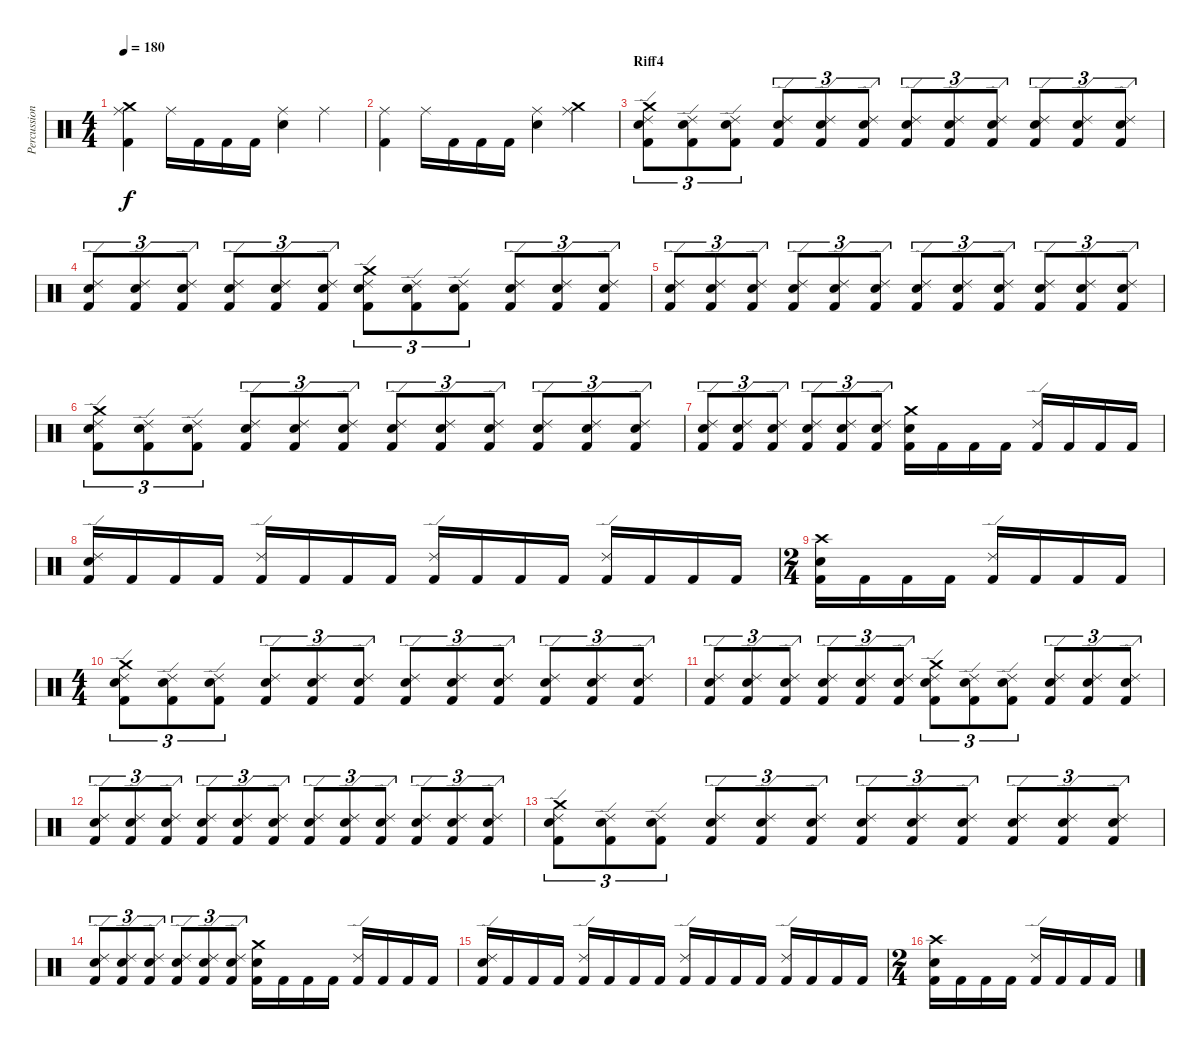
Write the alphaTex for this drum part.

\track ("Percussioni" "Percussion") {instrument percussion}
\staff {score}
\articulation defaults
\ts (4 4)
\tempo 180
\clef neutral
\ks c
("Crash medium (hit)" "Ride (middle)" "Kick (hit) 2").4{dy f} "Ride (middle)".16 "Kick (hit) 2".16 "Kick (hit) 2".16 "Kick (hit) 2".16 ("Ride (middle)" "Electric Snare (hit)").4 "Ride (middle)".4 |
("Ride (middle)" "Kick (hit) 2").4 "Ride (middle)".16 "Kick (hit) 2".16 "Kick (hit) 2".16 "Kick (hit) 2".16 ("Ride (middle)" "Electric Snare (hit)").4 ("Crash medium (hit)" "Ride (middle)").4 |
\section ("" "Riff4")
("Crash medium (hit)" "Ride (edge) 2" "Snare (hit) 2" "Kick (hit) 2").8{tu (3 2)} ("Ride (edge) 2" "Snare (hit) 2" "Kick (hit) 2").8{tu (3 2)} ("Ride (edge) 2" "Snare (hit) 2" "Kick (hit) 2").8{tu (3 2)} ("Ride (edge) 2" "Snare (hit) 2" "Kick (hit) 2").8{tu (3 2)} ("Ride (edge) 2" "Snare (hit) 2" "Kick (hit) 2").8{tu (3 2)} ("Ride (edge) 2" "Snare (hit) 2" "Kick (hit) 2").8{tu (3 2)} ("Ride (edge) 2" "Snare (hit) 2" "Kick (hit) 2").8{tu (3 2)} ("Ride (edge) 2" "Snare (hit) 2" "Kick (hit) 2").8{tu (3 2)} ("Ride (edge) 2" "Snare (hit) 2" "Kick (hit) 2").8{tu (3 2)} ("Ride (edge) 2" "Snare (hit) 2" "Kick (hit) 2").8{tu (3 2)} ("Ride (edge) 2" "Snare (hit) 2" "Kick (hit) 2").8{tu (3 2)} ("Ride (edge) 2" "Snare (hit) 2" "Kick (hit) 2").8{tu (3 2)} |
("Ride (edge) 2" "Snare (hit) 2" "Kick (hit) 2").8{tu (3 2)} ("Ride (edge) 2" "Snare (hit) 2" "Kick (hit) 2").8{tu (3 2)} ("Ride (edge) 2" "Snare (hit) 2" "Kick (hit) 2").8{tu (3 2)} ("Ride (edge) 2" "Snare (hit) 2" "Kick (hit) 2").8{tu (3 2)} ("Ride (edge) 2" "Snare (hit) 2" "Kick (hit) 2").8{tu (3 2)} ("Ride (edge) 2" "Snare (hit) 2" "Kick (hit) 2").8{tu (3 2)} ("Crash medium (hit)" "Ride (edge) 2" "Snare (hit) 2" "Kick (hit) 2").8{tu (3 2)} ("Ride (edge) 2" "Snare (hit) 2" "Kick (hit) 2").8{tu (3 2)} ("Ride (edge) 2" "Snare (hit) 2" "Kick (hit) 2").8{tu (3 2)} ("Ride (edge) 2" "Snare (hit) 2" "Kick (hit) 2").8{tu (3 2)} ("Ride (edge) 2" "Snare (hit) 2" "Kick (hit) 2").8{tu (3 2)} ("Ride (edge) 2" "Snare (hit) 2" "Kick (hit) 2").8{tu (3 2)} |
("Ride (edge) 2" "Snare (hit) 2" "Kick (hit) 2").8{tu (3 2)} ("Ride (edge) 2" "Snare (hit) 2" "Kick (hit) 2").8{tu (3 2)} ("Ride (edge) 2" "Snare (hit) 2" "Kick (hit) 2").8{tu (3 2)} ("Ride (edge) 2" "Snare (hit) 2" "Kick (hit) 2").8{tu (3 2)} ("Ride (edge) 2" "Snare (hit) 2" "Kick (hit) 2").8{tu (3 2)} ("Ride (edge) 2" "Snare (hit) 2" "Kick (hit) 2").8{tu (3 2)} ("Ride (edge) 2" "Snare (hit) 2" "Kick (hit) 2").8{tu (3 2)} ("Ride (edge) 2" "Snare (hit) 2" "Kick (hit) 2").8{tu (3 2)} ("Ride (edge) 2" "Snare (hit) 2" "Kick (hit) 2").8{tu (3 2)} ("Ride (edge) 2" "Snare (hit) 2" "Kick (hit) 2").8{tu (3 2)} ("Ride (edge) 2" "Snare (hit) 2" "Kick (hit) 2").8{tu (3 2)} ("Ride (edge) 2" "Snare (hit) 2" "Kick (hit) 2").8{tu (3 2)} |
("Crash medium (hit)" "Ride (edge) 2" "Snare (hit) 2" "Kick (hit) 2").8{tu (3 2)} ("Ride (edge) 2" "Snare (hit) 2" "Kick (hit) 2").8{tu (3 2)} ("Ride (edge) 2" "Snare (hit) 2" "Kick (hit) 2").8{tu (3 2)} ("Ride (edge) 2" "Snare (hit) 2" "Kick (hit) 2").8{tu (3 2)} ("Ride (edge) 2" "Snare (hit) 2" "Kick (hit) 2").8{tu (3 2)} ("Ride (edge) 2" "Snare (hit) 2" "Kick (hit) 2").8{tu (3 2)} ("Ride (edge) 2" "Snare (hit) 2" "Kick (hit) 2").8{tu (3 2)} ("Ride (edge) 2" "Snare (hit) 2" "Kick (hit) 2").8{tu (3 2)} ("Ride (edge) 2" "Snare (hit) 2" "Kick (hit) 2").8{tu (3 2)} ("Ride (edge) 2" "Snare (hit) 2" "Kick (hit) 2").8{tu (3 2)} ("Ride (edge) 2" "Snare (hit) 2" "Kick (hit) 2").8{tu (3 2)} ("Ride (edge) 2" "Snare (hit) 2" "Kick (hit) 2").8{tu (3 2)} |
("Ride (edge) 2" "Snare (hit) 2" "Kick (hit) 2").8{tu (3 2)} ("Ride (edge) 2" "Snare (hit) 2" "Kick (hit) 2").8{tu (3 2)} ("Ride (edge) 2" "Snare (hit) 2" "Kick (hit) 2").8{tu (3 2)} ("Ride (edge) 2" "Snare (hit) 2" "Kick (hit) 2").8{tu (3 2)} ("Ride (edge) 2" "Snare (hit) 2" "Kick (hit) 2").8{tu (3 2)} ("Ride (edge) 2" "Snare (hit) 2" "Kick (hit) 2").8{tu (3 2)} ("Crash medium (hit)" "Snare (hit) 2" "Kick (hit) 2").16 "Kick (hit) 2".16 "Kick (hit) 2".16 "Kick (hit) 2".16 ("Ride (edge) 2" "Kick (hit) 2").16 "Kick (hit) 2".16 "Kick (hit) 2".16 "Kick (hit) 2".16 |
("Ride (edge) 2" "Snare (hit) 2" "Kick (hit) 2").16 "Kick (hit) 2".16 "Kick (hit) 2".16 "Kick (hit) 2".16 ("Ride (edge) 2" "Kick (hit) 2").16 "Kick (hit) 2".16 "Kick (hit) 2".16 "Kick (hit) 2".16 ("Ride (edge) 2" "Kick (hit) 2").16 "Kick (hit) 2".16 "Kick (hit) 2".16 "Kick (hit) 2".16 ("Ride (edge) 2" "Kick (hit) 2").16 "Kick (hit) 2".16 "Kick (hit) 2".16 "Kick (hit) 2".16 |
\ts (2 4)
("Crash high (hit)" "Snare (hit) 2" "Kick (hit) 2").16 "Kick (hit) 2".16 "Kick (hit) 2".16 "Kick (hit) 2".16 ("Ride (edge) 2" "Kick (hit) 2").16 "Kick (hit) 2".16 "Kick (hit) 2".16 "Kick (hit) 2".16 |
\ts (4 4)
("Crash medium (hit)" "Ride (edge) 2" "Snare (hit) 2" "Kick (hit) 2").8{tu (3 2)} ("Ride (edge) 2" "Snare (hit) 2" "Kick (hit) 2").8{tu (3 2)} ("Ride (edge) 2" "Snare (hit) 2" "Kick (hit) 2").8{tu (3 2)} ("Ride (edge) 2" "Snare (hit) 2" "Kick (hit) 2").8{tu (3 2)} ("Ride (edge) 2" "Snare (hit) 2" "Kick (hit) 2").8{tu (3 2)} ("Ride (edge) 2" "Snare (hit) 2" "Kick (hit) 2").8{tu (3 2)} ("Ride (edge) 2" "Snare (hit) 2" "Kick (hit) 2").8{tu (3 2)} ("Ride (edge) 2" "Snare (hit) 2" "Kick (hit) 2").8{tu (3 2)} ("Ride (edge) 2" "Snare (hit) 2" "Kick (hit) 2").8{tu (3 2)} ("Ride (edge) 2" "Snare (hit) 2" "Kick (hit) 2").8{tu (3 2)} ("Ride (edge) 2" "Snare (hit) 2" "Kick (hit) 2").8{tu (3 2)} ("Ride (edge) 2" "Snare (hit) 2" "Kick (hit) 2").8{tu (3 2)} |
("Ride (edge) 2" "Snare (hit) 2" "Kick (hit) 2").8{tu (3 2)} ("Ride (edge) 2" "Snare (hit) 2" "Kick (hit) 2").8{tu (3 2)} ("Ride (edge) 2" "Snare (hit) 2" "Kick (hit) 2").8{tu (3 2)} ("Ride (edge) 2" "Snare (hit) 2" "Kick (hit) 2").8{tu (3 2)} ("Ride (edge) 2" "Snare (hit) 2" "Kick (hit) 2").8{tu (3 2)} ("Ride (edge) 2" "Snare (hit) 2" "Kick (hit) 2").8{tu (3 2)} ("Crash medium (hit)" "Ride (edge) 2" "Snare (hit) 2" "Kick (hit) 2").8{tu (3 2)} ("Ride (edge) 2" "Snare (hit) 2" "Kick (hit) 2").8{tu (3 2)} ("Ride (edge) 2" "Snare (hit) 2" "Kick (hit) 2").8{tu (3 2)} ("Ride (edge) 2" "Snare (hit) 2" "Kick (hit) 2").8{tu (3 2)} ("Ride (edge) 2" "Snare (hit) 2" "Kick (hit) 2").8{tu (3 2)} ("Ride (edge) 2" "Snare (hit) 2" "Kick (hit) 2").8{tu (3 2)} |
("Ride (edge) 2" "Snare (hit) 2" "Kick (hit) 2").8{tu (3 2)} ("Ride (edge) 2" "Snare (hit) 2" "Kick (hit) 2").8{tu (3 2)} ("Ride (edge) 2" "Snare (hit) 2" "Kick (hit) 2").8{tu (3 2)} ("Ride (edge) 2" "Snare (hit) 2" "Kick (hit) 2").8{tu (3 2)} ("Ride (edge) 2" "Snare (hit) 2" "Kick (hit) 2").8{tu (3 2)} ("Ride (edge) 2" "Snare (hit) 2" "Kick (hit) 2").8{tu (3 2)} ("Ride (edge) 2" "Snare (hit) 2" "Kick (hit) 2").8{tu (3 2)} ("Ride (edge) 2" "Snare (hit) 2" "Kick (hit) 2").8{tu (3 2)} ("Ride (edge) 2" "Snare (hit) 2" "Kick (hit) 2").8{tu (3 2)} ("Ride (edge) 2" "Snare (hit) 2" "Kick (hit) 2").8{tu (3 2)} ("Ride (edge) 2" "Snare (hit) 2" "Kick (hit) 2").8{tu (3 2)} ("Ride (edge) 2" "Snare (hit) 2" "Kick (hit) 2").8{tu (3 2)} |
("Crash medium (hit)" "Ride (edge) 2" "Snare (hit) 2" "Kick (hit) 2").8{tu (3 2)} ("Ride (edge) 2" "Snare (hit) 2" "Kick (hit) 2").8{tu (3 2)} ("Ride (edge) 2" "Snare (hit) 2" "Kick (hit) 2").8{tu (3 2)} ("Ride (edge) 2" "Snare (hit) 2" "Kick (hit) 2").8{tu (3 2)} ("Ride (edge) 2" "Snare (hit) 2" "Kick (hit) 2").8{tu (3 2)} ("Ride (edge) 2" "Snare (hit) 2" "Kick (hit) 2").8{tu (3 2)} ("Ride (edge) 2" "Snare (hit) 2" "Kick (hit) 2").8{tu (3 2)} ("Ride (edge) 2" "Snare (hit) 2" "Kick (hit) 2").8{tu (3 2)} ("Ride (edge) 2" "Snare (hit) 2" "Kick (hit) 2").8{tu (3 2)} ("Ride (edge) 2" "Snare (hit) 2" "Kick (hit) 2").8{tu (3 2)} ("Ride (edge) 2" "Snare (hit) 2" "Kick (hit) 2").8{tu (3 2)} ("Ride (edge) 2" "Snare (hit) 2" "Kick (hit) 2").8{tu (3 2)} |
("Ride (edge) 2" "Snare (hit) 2" "Kick (hit) 2").8{tu (3 2)} ("Ride (edge) 2" "Snare (hit) 2" "Kick (hit) 2").8{tu (3 2)} ("Ride (edge) 2" "Snare (hit) 2" "Kick (hit) 2").8{tu (3 2)} ("Ride (edge) 2" "Snare (hit) 2" "Kick (hit) 2").8{tu (3 2)} ("Ride (edge) 2" "Snare (hit) 2" "Kick (hit) 2").8{tu (3 2)} ("Ride (edge) 2" "Snare (hit) 2" "Kick (hit) 2").8{tu (3 2)} ("Crash medium (hit)" "Snare (hit) 2" "Kick (hit) 2").16 "Kick (hit) 2".16 "Kick (hit) 2".16 "Kick (hit) 2".16 ("Ride (edge) 2" "Kick (hit) 2").16 "Kick (hit) 2".16 "Kick (hit) 2".16 "Kick (hit) 2".16 |
("Ride (edge) 2" "Snare (hit) 2" "Kick (hit) 2").16 "Kick (hit) 2".16 "Kick (hit) 2".16 "Kick (hit) 2".16 ("Ride (edge) 2" "Kick (hit) 2").16 "Kick (hit) 2".16 "Kick (hit) 2".16 "Kick (hit) 2".16 ("Ride (edge) 2" "Kick (hit) 2").16 "Kick (hit) 2".16 "Kick (hit) 2".16 "Kick (hit) 2".16 ("Ride (edge) 2" "Kick (hit) 2").16 "Kick (hit) 2".16 "Kick (hit) 2".16 "Kick (hit) 2".16 |
\ts (2 4)
("Crash high (hit)" "Snare (hit) 2" "Kick (hit) 2").16 "Kick (hit) 2".16 "Kick (hit) 2".16 "Kick (hit) 2".16 ("Ride (edge) 2" "Kick (hit) 2").16 "Kick (hit) 2".16 "Kick (hit) 2".16 "Kick (hit) 2".16
